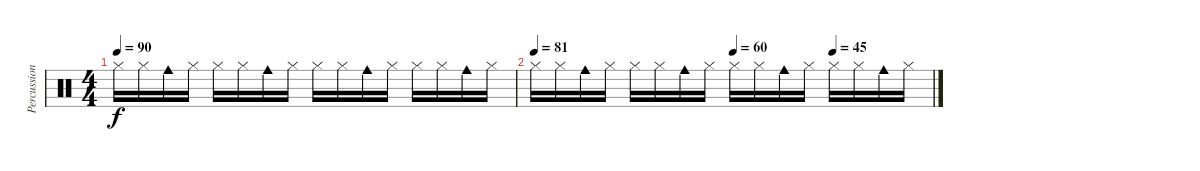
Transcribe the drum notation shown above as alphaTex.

\track ("Percussion" "Percussion") {instrument percussion}
\staff {score}
\articulation defaults
\ts (4 4)
\tempo 90
\clef neutral
\ks c "Hi-Hat (closed)".16{dy f} "Hi-Hat (closed)".16 "Cowbell medium (hit)".16 "Hi-Hat (closed)".16 "Hi-Hat (closed)".16 "Hi-Hat (closed)".16 "Cowbell medium (hit)".16 "Hi-Hat (closed)".16 "Hi-Hat (closed)".16 "Hi-Hat (closed)".16 "Cowbell medium (hit)".16 "Hi-Hat (closed)".16 "Hi-Hat (closed)".16 "Hi-Hat (closed)".16 "Cowbell medium (hit)".16 "Hi-Hat (closed)".16
|
\tempo 81
\tempo (60 0.5)
\tempo (45 0.75)
"Hi-Hat (closed)".16 "Hi-Hat (closed)".16 "Cowbell medium (hit)".16 "Hi-Hat (closed)".16 "Hi-Hat (closed)".16 "Hi-Hat (closed)".16 "Cowbell medium (hit)".16 "Hi-Hat (closed)".16 "Hi-Hat (closed)".16 "Hi-Hat (closed)".16 "Cowbell medium (hit)".16 "Hi-Hat (closed)".16 "Hi-Hat (closed)".16 "Hi-Hat (closed)".16 "Cowbell medium (hit)".16 "Hi-Hat (closed)".16
